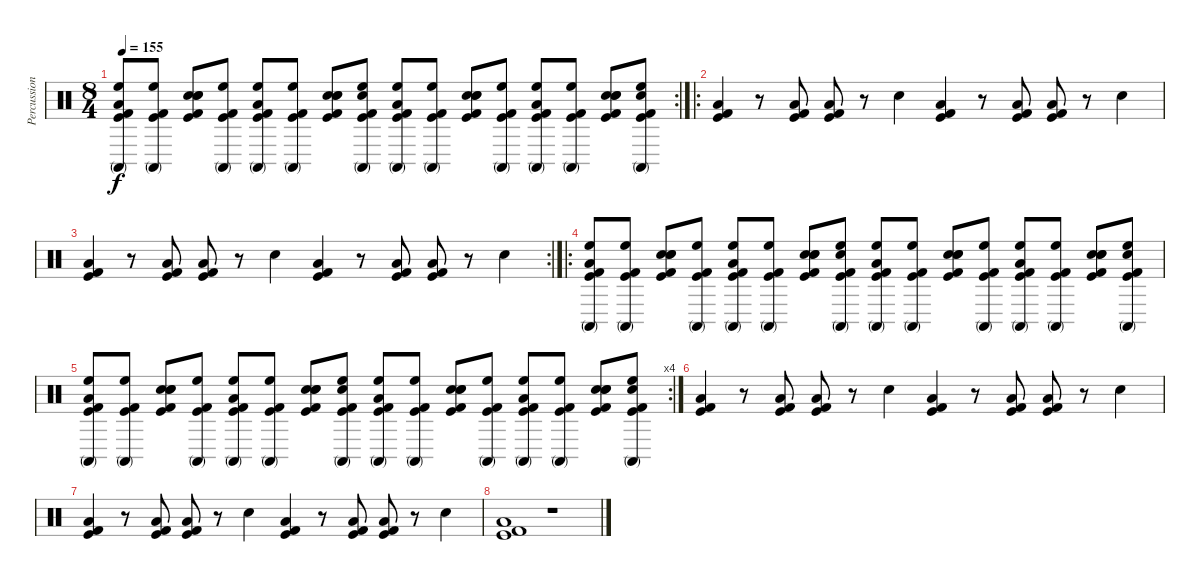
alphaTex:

\track ("Percussion" "Percussion") {instrument percussion}
\staff {score}
\articulation defaults
\rc 2
\ts (8 4)
\tempo 155
\clef neutral
\ks c
("Conga high (mute)" "High Floor Tom (hit)" "Low Tom (hit)" "Kick (hit) 2" "Kick (hit)").8{dy f} ("Conga high (mute)" "High Floor Tom (hit)" "Kick (hit) 2" "Kick (hit)").8 ("Electric Snare (hit)" "Snare (hit) 2" "Snare (hit) 2" "Kick (hit) 2" "Kick (hit)").8 ("Conga high (mute)" "High Floor Tom (hit)" "Kick (hit) 2" "Kick (hit)").8 ("Conga high (mute)" "High Floor Tom (hit)" "Low Tom (hit)" "Kick (hit) 2" "Kick (hit)").8 ("Conga high (mute)" "High Floor Tom (hit)" "Kick (hit) 2" "Kick (hit)").8 ("Electric Snare (hit)" "Snare (hit) 2" "Snare (hit) 2" "Kick (hit) 2" "Kick (hit)").8 ("Conga high (mute)" "High Floor Tom (hit)" "Snare (hit) 2" "Kick (hit) 2" "Kick (hit)").8 ("Conga high (mute)" "High Floor Tom (hit)" "Low Tom (hit)" "Kick (hit) 2" "Kick (hit)").8 ("Conga high (mute)" "High Floor Tom (hit)" "Kick (hit) 2" "Kick (hit)").8 ("Electric Snare (hit)" "Snare (hit) 2" "Snare (hit) 2" "Kick (hit) 2" "Kick (hit)").8 ("Conga high (mute)" "High Floor Tom (hit)" "Kick (hit) 2" "Kick (hit)").8 ("Conga high (mute)" "High Floor Tom (hit)" "Low Tom (hit)" "Kick (hit) 2" "Kick (hit)").8 ("Conga high (mute)" "High Floor Tom (hit)" "Kick (hit) 2" "Kick (hit)").8 ("Electric Snare (hit)" "Snare (hit) 2" "Snare (hit) 2" "Kick (hit) 2" "Kick (hit)").8 ("Conga high (mute)" "High Floor Tom (hit)" "Snare (hit) 2" "Kick (hit) 2" "Kick (hit)").8 |
\ro
("Low Tom (hit)" "Kick (hit) 2" "Kick (hit)").4 r.8 ("Low Tom (hit)" "Kick (hit) 2" "Kick (hit)").8 ("Low Tom (hit)" "Kick (hit) 2" "Kick (hit)").8 r.8 "Snare (hit) 2".4 ("Low Tom (hit)" "Kick (hit) 2" "Kick (hit)").4 r.8 ("Low Tom (hit)" "Kick (hit) 2" "Kick (hit)").8 ("Low Tom (hit)" "Kick (hit) 2" "Kick (hit)").8 r.8 "Snare (hit) 2".4 |
\rc 2
("Low Tom (hit)" "Kick (hit) 2" "Kick (hit)").4 r.8 ("Low Tom (hit)" "Kick (hit) 2" "Kick (hit)").8 ("Low Tom (hit)" "Kick (hit) 2" "Kick (hit)").8 r.8 "Snare (hit) 2".4 ("Low Tom (hit)" "Kick (hit) 2" "Kick (hit)").4 r.8 ("Low Tom (hit)" "Kick (hit) 2" "Kick (hit)").8 ("Low Tom (hit)" "Kick (hit) 2" "Kick (hit)").8 r.8 "Snare (hit) 2".4 |
\ro
("Conga high (mute)" "High Floor Tom (hit)" "Low Tom (hit)" "Kick (hit) 2" "Kick (hit)").8 ("Conga high (mute)" "High Floor Tom (hit)" "Kick (hit) 2" "Kick (hit)").8 ("Electric Snare (hit)" "Snare (hit) 2" "Snare (hit) 2" "Kick (hit) 2" "Kick (hit)").8 ("Conga high (mute)" "High Floor Tom (hit)" "Kick (hit) 2" "Kick (hit)").8 ("Conga high (mute)" "High Floor Tom (hit)" "Low Tom (hit)" "Kick (hit) 2" "Kick (hit)").8 ("Conga high (mute)" "High Floor Tom (hit)" "Kick (hit) 2" "Kick (hit)").8 ("Electric Snare (hit)" "Snare (hit) 2" "Snare (hit) 2" "Kick (hit) 2" "Kick (hit)").8 ("Conga high (mute)" "High Floor Tom (hit)" "Snare (hit) 2" "Kick (hit) 2" "Kick (hit)").8 ("Conga high (mute)" "High Floor Tom (hit)" "Low Tom (hit)" "Kick (hit) 2" "Kick (hit)").8 ("Conga high (mute)" "High Floor Tom (hit)" "Kick (hit) 2" "Kick (hit)").8 ("Electric Snare (hit)" "Snare (hit) 2" "Snare (hit) 2" "Kick (hit) 2" "Kick (hit)").8 ("Conga high (mute)" "High Floor Tom (hit)" "Kick (hit) 2" "Kick (hit)").8 ("Conga high (mute)" "High Floor Tom (hit)" "Low Tom (hit)" "Kick (hit) 2" "Kick (hit)").8 ("Conga high (mute)" "High Floor Tom (hit)" "Kick (hit) 2" "Kick (hit)").8 ("Electric Snare (hit)" "Snare (hit) 2" "Snare (hit) 2" "Kick (hit) 2" "Kick (hit)").8 ("Conga high (mute)" "High Floor Tom (hit)" "Snare (hit) 2" "Kick (hit) 2" "Kick (hit)").8 |
\rc 4
("Conga high (mute)" "High Floor Tom (hit)" "Low Tom (hit)" "Kick (hit) 2" "Kick (hit)").8 ("Conga high (mute)" "High Floor Tom (hit)" "Kick (hit) 2" "Kick (hit)").8 ("Electric Snare (hit)" "Snare (hit) 2" "Snare (hit) 2" "Kick (hit) 2" "Kick (hit)").8 ("Conga high (mute)" "High Floor Tom (hit)" "Kick (hit) 2" "Kick (hit)").8 ("Conga high (mute)" "High Floor Tom (hit)" "Low Tom (hit)" "Kick (hit) 2" "Kick (hit)").8 ("Conga high (mute)" "High Floor Tom (hit)" "Kick (hit) 2" "Kick (hit)").8 ("Electric Snare (hit)" "Snare (hit) 2" "Snare (hit) 2" "Kick (hit) 2" "Kick (hit)").8 ("Conga high (mute)" "High Floor Tom (hit)" "Snare (hit) 2" "Kick (hit) 2" "Kick (hit)").8 ("Conga high (mute)" "High Floor Tom (hit)" "Low Tom (hit)" "Kick (hit) 2" "Kick (hit)").8 ("Conga high (mute)" "High Floor Tom (hit)" "Kick (hit) 2" "Kick (hit)").8 ("Electric Snare (hit)" "Snare (hit) 2" "Snare (hit) 2" "Kick (hit) 2" "Kick (hit)").8 ("Conga high (mute)" "High Floor Tom (hit)" "Kick (hit) 2" "Kick (hit)").8 ("Conga high (mute)" "High Floor Tom (hit)" "Low Tom (hit)" "Kick (hit) 2" "Kick (hit)").8 ("Conga high (mute)" "High Floor Tom (hit)" "Kick (hit) 2" "Kick (hit)").8 ("Electric Snare (hit)" "Snare (hit) 2" "Snare (hit) 2" "Kick (hit) 2" "Kick (hit)").8 ("Conga high (mute)" "High Floor Tom (hit)" "Snare (hit) 2" "Kick (hit) 2" "Kick (hit)").8 |
("Low Tom (hit)" "Kick (hit) 2" "Kick (hit)").4 r.8 ("Low Tom (hit)" "Kick (hit) 2" "Kick (hit)").8 ("Low Tom (hit)" "Kick (hit) 2" "Kick (hit)").8 r.8 "Snare (hit) 2".4 ("Low Tom (hit)" "Kick (hit) 2" "Kick (hit)").4 r.8 ("Low Tom (hit)" "Kick (hit) 2" "Kick (hit)").8 ("Low Tom (hit)" "Kick (hit) 2" "Kick (hit)").8 r.8 "Snare (hit) 2".4 |
("Low Tom (hit)" "Kick (hit) 2" "Kick (hit)").4 r.8 ("Low Tom (hit)" "Kick (hit) 2" "Kick (hit)").8 ("Low Tom (hit)" "Kick (hit) 2" "Kick (hit)").8 r.8 "Snare (hit) 2".4 ("Low Tom (hit)" "Kick (hit) 2" "Kick (hit)").4 r.8 ("Low Tom (hit)" "Kick (hit) 2" "Kick (hit)").8 ("Low Tom (hit)" "Kick (hit) 2" "Kick (hit)").8 r.8 "Snare (hit) 2".4 |
("Low Tom (hit)" "Kick (hit) 2" "Kick (hit)").1 r.1
